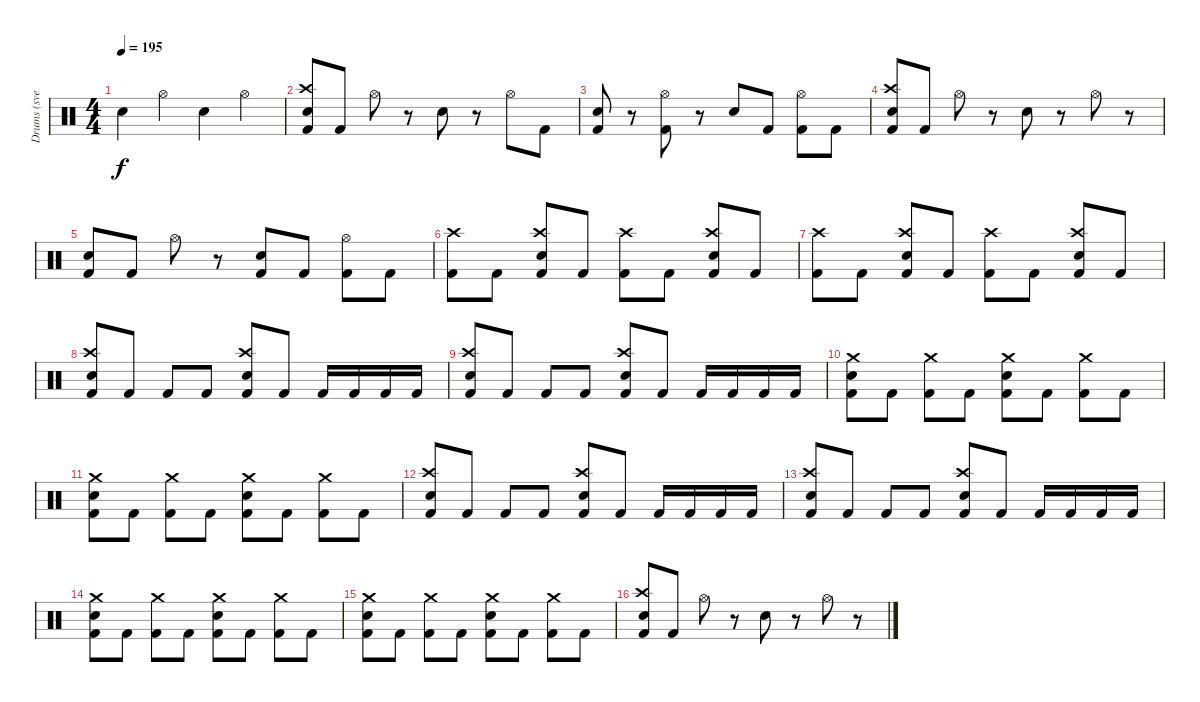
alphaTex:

\track ("Drums (svelle)" "Drums (sve") {instrument percussion}
\staff {score}
\articulation defaults
\ts (4 4)
\tempo 195
\clef neutral
\ks c "Electric Snare (hit)".4{dy f} "Hi-Hat (open)".4 "Electric Snare (hit)".4 "Hi-Hat (open)".4
|
("Crash high (hit)" "Electric Snare (hit)" "Kick (hit) 2").8 "Kick (hit) 2".8 "Hi-Hat (open)".8 r.8 "Electric Snare (hit)".8 r.8 "Hi-Hat (open)".8 "Kick (hit) 2".8 |
("Electric Snare (hit)" "Kick (hit) 2").8 r.8 ("Hi-Hat (open)" "Kick (hit) 2").8 r.8 "Electric Snare (hit)".8 "Kick (hit) 2".8 ("Hi-Hat (open)" "Kick (hit) 2").8 "Kick (hit) 2".8 |
("Crash high (hit)" "Electric Snare (hit)" "Kick (hit) 2").8 "Kick (hit) 2".8 "Hi-Hat (open)".8 r.8 "Electric Snare (hit)".8 r.8 "Hi-Hat (open)".8 r.8 |
("Electric Snare (hit)" "Kick (hit) 2").8 "Kick (hit) 2".8 "Hi-Hat (open)".8 r.8 ("Electric Snare (hit)" "Kick (hit) 2").8 "Kick (hit) 2".8 ("Hi-Hat (open)" "Kick (hit) 2").8 "Kick (hit) 2".8 |
("Crash high (hit)" "Kick (hit) 2").8 "Kick (hit) 2".8 ("Crash high (hit)" "Electric Snare (hit)" "Kick (hit) 2").8 "Kick (hit) 2".8 ("Crash high (hit)" "Kick (hit) 2").8 "Kick (hit) 2".8 ("Crash high (hit)" "Electric Snare (hit)" "Kick (hit) 2").8 "Kick (hit) 2".8 |
("Crash high (hit)" "Kick (hit) 2").8 "Kick (hit) 2".8 ("Crash high (hit)" "Electric Snare (hit)" "Kick (hit) 2").8 "Kick (hit) 2".8 ("Crash high (hit)" "Kick (hit) 2").8 "Kick (hit) 2".8 ("Crash high (hit)" "Electric Snare (hit)" "Kick (hit) 2").8 "Kick (hit) 2".8 |
("Crash high (hit)" "Electric Snare (hit)" "Kick (hit) 2").8 "Kick (hit) 2".8 "Kick (hit) 2".8 "Kick (hit) 2".8 ("Crash high (hit)" "Electric Snare (hit)" "Kick (hit) 2").8 "Kick (hit) 2".8 "Kick (hit) 2".16 "Kick (hit) 2".16 "Kick (hit) 2".16 "Kick (hit) 2".16 |
("Crash high (hit)" "Electric Snare (hit)" "Kick (hit) 2").8 "Kick (hit) 2".8 "Kick (hit) 2".8 "Kick (hit) 2".8 ("Crash high (hit)" "Electric Snare (hit)" "Kick (hit) 2").8 "Kick (hit) 2".8 "Kick (hit) 2".16 "Kick (hit) 2".16 "Kick (hit) 2".16 "Kick (hit) 2".16 |
("Crash medium (hit)" "Electric Snare (hit)" "Kick (hit) 2").8 "Kick (hit) 2".8 ("Crash medium (hit)" "Kick (hit) 2").8 "Kick (hit) 2".8 ("Crash medium (hit)" "Electric Snare (hit)" "Kick (hit) 2").8 "Kick (hit) 2".8 ("Crash medium (hit)" "Kick (hit) 2").8 "Kick (hit) 2".8 |
("Crash medium (hit)" "Electric Snare (hit)" "Kick (hit) 2").8 "Kick (hit) 2".8 ("Crash medium (hit)" "Kick (hit) 2").8 "Kick (hit) 2".8 ("Crash medium (hit)" "Electric Snare (hit)" "Kick (hit) 2").8 "Kick (hit) 2".8 ("Crash medium (hit)" "Kick (hit) 2").8 "Kick (hit) 2".8 |
("Crash high (hit)" "Electric Snare (hit)" "Kick (hit) 2").8 "Kick (hit) 2".8 "Kick (hit) 2".8 "Kick (hit) 2".8 ("Crash high (hit)" "Electric Snare (hit)" "Kick (hit) 2").8 "Kick (hit) 2".8 "Kick (hit) 2".16 "Kick (hit) 2".16 "Kick (hit) 2".16 "Kick (hit) 2".16 |
("Crash high (hit)" "Electric Snare (hit)" "Kick (hit) 2").8 "Kick (hit) 2".8 "Kick (hit) 2".8 "Kick (hit) 2".8 ("Crash high (hit)" "Electric Snare (hit)" "Kick (hit) 2").8 "Kick (hit) 2".8 "Kick (hit) 2".16 "Kick (hit) 2".16 "Kick (hit) 2".16 "Kick (hit) 2".16 |
("Crash medium (hit)" "Electric Snare (hit)" "Kick (hit) 2").8 "Kick (hit) 2".8 ("Crash medium (hit)" "Kick (hit) 2").8 "Kick (hit) 2".8 ("Crash medium (hit)" "Electric Snare (hit)" "Kick (hit) 2").8 "Kick (hit) 2".8 ("Crash medium (hit)" "Kick (hit) 2").8 "Kick (hit) 2".8 |
("Crash medium (hit)" "Electric Snare (hit)" "Kick (hit) 2").8 "Kick (hit) 2".8 ("Crash medium (hit)" "Kick (hit) 2").8 "Kick (hit) 2".8 ("Crash medium (hit)" "Electric Snare (hit)" "Kick (hit) 2").8 "Kick (hit) 2".8 ("Crash medium (hit)" "Kick (hit) 2").8 "Kick (hit) 2".8 |
("Crash high (hit)" "Electric Snare (hit)" "Kick (hit) 2").8 "Kick (hit) 2".8 "Hi-Hat (open)".8 r.8 "Electric Snare (hit)".8 r.8 "Hi-Hat (open)".8 r.8
